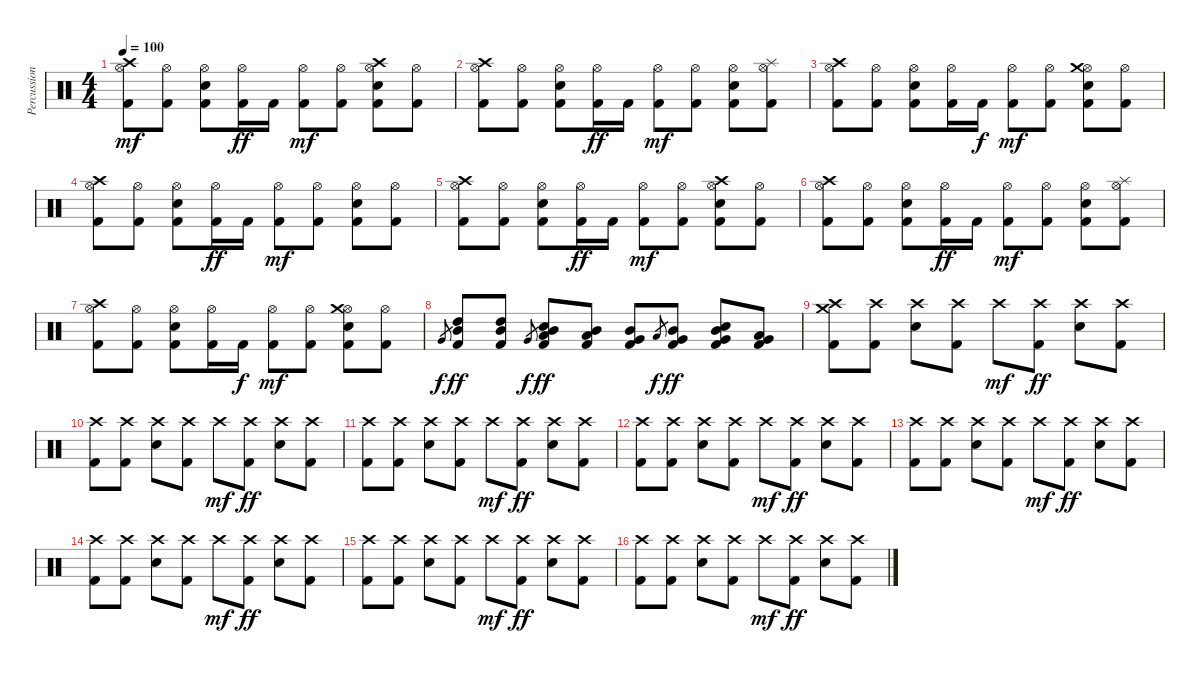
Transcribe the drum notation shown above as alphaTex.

\track ("Percussions" "Percussion") {instrument percussion}
\staff {score}
\articulation defaults
\ts (4 4)
\tempo 100
\clef neutral
\ks c
("Hi-Hat (open)" "Crash high (hit)" "Kick (hit) 2").8{dy mf} ("Hi-Hat (open)" "Kick (hit) 2").8 ("Hi-Hat (open)" "Electric Snare (hit)" "Kick (hit) 2").8 ("Hi-Hat (open)" "Kick (hit) 2").16{dy ff} "Kick (hit) 2".16 ("Hi-Hat (open)" "Kick (hit) 2").8{dy mf} ("Hi-Hat (open)" "Kick (hit) 2").8 ("Hi-Hat (open)" "Crash high (hit)" "Electric Snare (hit)" "Kick (hit) 2").8 ("Hi-Hat (open)" "Kick (hit) 2").8 |
("Hi-Hat (open)" "Crash high (hit)" "Kick (hit) 2").8 ("Hi-Hat (open)" "Kick (hit) 2").8 ("Hi-Hat (open)" "Electric Snare (hit)" "Kick (hit) 2").8 ("Hi-Hat (open)" "Kick (hit) 2").16{dy ff} "Kick (hit) 2".16 ("Hi-Hat (open)" "Kick (hit) 2").8{dy mf} ("Hi-Hat (open)" "Kick (hit) 2").8 ("Hi-Hat (open)" "Electric Snare (hit)" "Kick (hit) 2").8 ("Hi-Hat (open)" "Splash (hit)" "Kick (hit) 2").8 |
("Hi-Hat (open)" "Crash high (hit)" "Kick (hit) 2").8 ("Hi-Hat (open)" "Kick (hit) 2").8 ("Hi-Hat (open)" "Electric Snare (hit)" "Kick (hit) 2").8 ("Hi-Hat (open)" "Kick (hit) 2").16 "Kick (hit) 2".16{dy f} ("Hi-Hat (open)" "Kick (hit) 2").8{dy mf} ("Hi-Hat (open)" "Kick (hit) 2").8 ("Hi-Hat (open)" "Crash medium (hit)" "Electric Snare (hit)" "Kick (hit) 2").8 ("Hi-Hat (open)" "Kick (hit) 2").8 |
("Hi-Hat (open)" "Crash high (hit)" "Kick (hit) 2").8 ("Hi-Hat (open)" "Kick (hit) 2").8 ("Hi-Hat (open)" "Electric Snare (hit)" "Kick (hit) 2").8 ("Hi-Hat (open)" "Kick (hit) 2").16{dy ff} "Kick (hit) 2".16 ("Hi-Hat (open)" "Kick (hit) 2").8{dy mf} ("Hi-Hat (open)" "Kick (hit) 2").8 ("Hi-Hat (open)" "Electric Snare (hit)" "Kick (hit) 2").8 ("Hi-Hat (open)" "Kick (hit) 2").8 |
("Hi-Hat (open)" "Crash high (hit)" "Kick (hit) 2").8 ("Hi-Hat (open)" "Kick (hit) 2").8 ("Hi-Hat (open)" "Electric Snare (hit)" "Kick (hit) 2").8 ("Hi-Hat (open)" "Kick (hit) 2").16{dy ff} "Kick (hit) 2".16 ("Hi-Hat (open)" "Kick (hit) 2").8{dy mf} ("Hi-Hat (open)" "Kick (hit) 2").8 ("Hi-Hat (open)" "Crash high (hit)" "Electric Snare (hit)" "Kick (hit) 2").8 ("Hi-Hat (open)" "Kick (hit) 2").8 |
("Hi-Hat (open)" "Crash high (hit)" "Kick (hit) 2").8 ("Hi-Hat (open)" "Kick (hit) 2").8 ("Hi-Hat (open)" "Electric Snare (hit)" "Kick (hit) 2").8 ("Hi-Hat (open)" "Kick (hit) 2").16{dy ff} "Kick (hit) 2".16 ("Hi-Hat (open)" "Kick (hit) 2").8{dy mf} ("Hi-Hat (open)" "Kick (hit) 2").8 ("Hi-Hat (open)" "Electric Snare (hit)" "Kick (hit) 2").8 ("Hi-Hat (open)" "Splash (hit)" "Kick (hit) 2").8 |
("Hi-Hat (open)" "Crash high (hit)" "Kick (hit) 2").8 ("Hi-Hat (open)" "Kick (hit) 2").8 ("Hi-Hat (open)" "Electric Snare (hit)" "Kick (hit) 2").8 ("Hi-Hat (open)" "Kick (hit) 2").16 "Kick (hit) 2".16{dy f} ("Hi-Hat (open)" "Kick (hit) 2").8{dy mf} ("Hi-Hat (open)" "Kick (hit) 2").8 ("Hi-Hat (open)" "Crash medium (hit)" "Electric Snare (hit)" "Kick (hit) 2").8 ("Hi-Hat (open)" "Kick (hit) 2").8 |
"Very Low Tom (hit)".8{gr dy f} ("High Tom (hit)" "Mid Tom (hit)" "Kick (hit) 2").8{dy ff} ("High Tom (hit)" "Mid Tom (hit)" "Kick (hit) 2").8 "Very Low Tom (hit)".8{gr dy f} ("Low Tom (hit)" "Mid Tom (hit)" "Electric Snare (hit)" "Kick (hit) 2").8{dy ff} ("Low Tom (hit)" "Mid Tom (hit)" "Kick (hit) 2").8 ("Mid Tom (hit)" "Very Low Tom (hit)" "Kick (hit) 2").8 "Low Tom (hit)".8{gr dy f} ("Very Low Tom (hit)" "Mid Tom (hit)" "Kick (hit) 2").8{dy ff} ("Mid Tom (hit)" "Very Low Tom (hit)" "Electric Snare (hit)" "Kick (hit) 2").8 ("Very Low Tom (hit)" "Low Floor Tom (hit)" "Kick (hit) 2").8 |
("Crash high (hit)" "Crash medium (hit)" "Kick (hit) 2").8 ("Crash high (hit)" "Kick (hit) 2").8 ("Crash high (hit)" "Electric Snare (hit)").8 ("Crash high (hit)" "Kick (hit) 2").8 "Crash high (hit)".8{dy mf} ("Crash high (hit)" "Kick (hit) 2").8{dy ff} ("Crash high (hit)" "Electric Snare (hit)").8 ("Crash high (hit)" "Kick (hit) 2").8 |
("Crash high (hit)" "Kick (hit) 2").8 ("Crash high (hit)" "Kick (hit) 2").8 ("Crash high (hit)" "Electric Snare (hit)").8 ("Crash high (hit)" "Kick (hit) 2").8 "Crash high (hit)".8{dy mf} ("Crash high (hit)" "Kick (hit) 2").8{dy ff} ("Crash high (hit)" "Electric Snare (hit)").8 ("Crash high (hit)" "Kick (hit) 2").8 |
("Crash high (hit)" "Kick (hit) 2").8 ("Crash high (hit)" "Kick (hit) 2").8 ("Crash high (hit)" "Electric Snare (hit)").8 ("Crash high (hit)" "Kick (hit) 2").8 "Crash high (hit)".8{dy mf} ("Crash high (hit)" "Kick (hit) 2").8{dy ff} ("Crash high (hit)" "Electric Snare (hit)").8 ("Crash high (hit)" "Kick (hit) 2").8 |
("Crash high (hit)" "Kick (hit) 2").8 ("Crash high (hit)" "Kick (hit) 2").8 ("Crash high (hit)" "Electric Snare (hit)").8 ("Crash high (hit)" "Kick (hit) 2").8 "Crash high (hit)".8{dy mf} ("Crash high (hit)" "Kick (hit) 2").8{dy ff} ("Crash high (hit)" "Electric Snare (hit)").8 ("Crash high (hit)" "Kick (hit) 2").8 |
("Crash high (hit)" "Kick (hit) 2").8 ("Crash high (hit)" "Kick (hit) 2").8 ("Crash high (hit)" "Electric Snare (hit)").8 ("Crash high (hit)" "Kick (hit) 2").8 "Crash high (hit)".8{dy mf} ("Crash high (hit)" "Kick (hit) 2").8{dy ff} ("Crash high (hit)" "Electric Snare (hit)").8 ("Crash high (hit)" "Kick (hit) 2").8 |
("Crash high (hit)" "Kick (hit) 2").8 ("Crash high (hit)" "Kick (hit) 2").8 ("Crash high (hit)" "Electric Snare (hit)").8 ("Crash high (hit)" "Kick (hit) 2").8 "Crash high (hit)".8{dy mf} ("Crash high (hit)" "Kick (hit) 2").8{dy ff} ("Crash high (hit)" "Electric Snare (hit)").8 ("Crash high (hit)" "Kick (hit) 2").8 |
("Crash high (hit)" "Kick (hit) 2").8 ("Crash high (hit)" "Kick (hit) 2").8 ("Crash high (hit)" "Electric Snare (hit)").8 ("Crash high (hit)" "Kick (hit) 2").8 "Crash high (hit)".8{dy mf} ("Crash high (hit)" "Kick (hit) 2").8{dy ff} ("Crash high (hit)" "Electric Snare (hit)").8 ("Crash high (hit)" "Kick (hit) 2").8 |
("Crash high (hit)" "Kick (hit) 2").8 ("Crash high (hit)" "Kick (hit) 2").8 ("Crash high (hit)" "Electric Snare (hit)").8 ("Crash high (hit)" "Kick (hit) 2").8 "Crash high (hit)".8{dy mf} ("Crash high (hit)" "Kick (hit) 2").8{dy ff} ("Crash high (hit)" "Electric Snare (hit)").8 ("Crash high (hit)" "Kick (hit) 2").8
